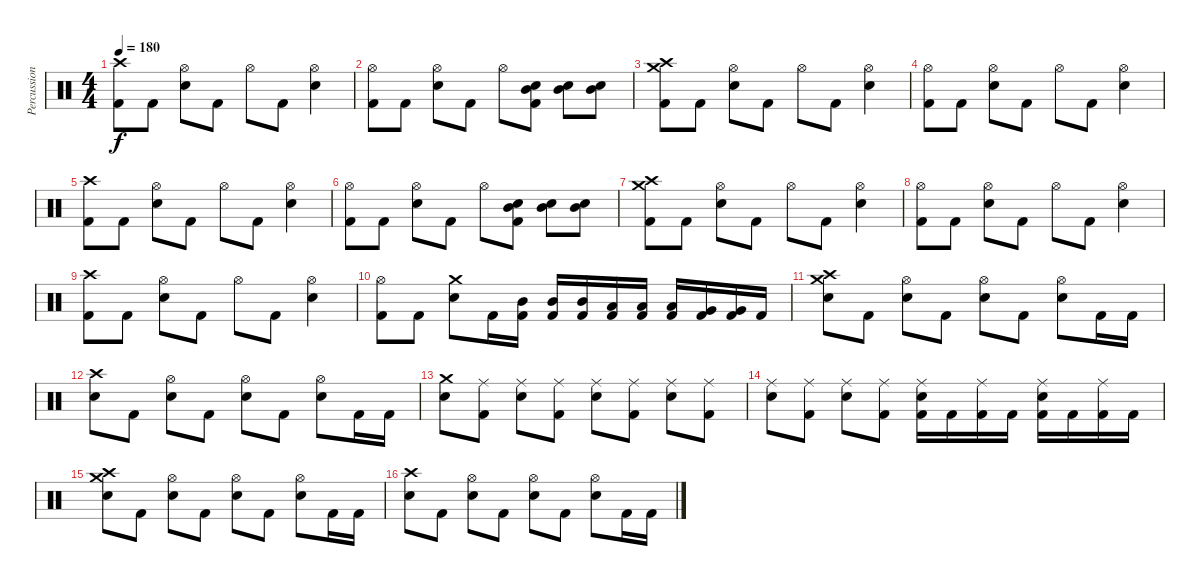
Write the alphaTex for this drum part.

\track ("Percussion" "Percussion") {instrument percussion}
\staff {score}
\articulation defaults
\ts (4 4)
\tempo 180
\clef neutral
\ks c
("Crash high (hit)" "Kick (hit) 2").8{dy f} "Kick (hit) 2".8 ("Hi-Hat (open)" "Electric Snare (hit)").8 "Kick (hit) 2".8 "Hi-Hat (open)".8 "Kick (hit) 2".8 ("Hi-Hat (open)" "Electric Snare (hit)").4 |
("Hi-Hat (open)" "Kick (hit) 2").8 "Kick (hit) 2".8 ("Hi-Hat (open)" "Electric Snare (hit)").8 "Kick (hit) 2".8 "Hi-Hat (open)".8 ("Electric Snare (hit)" "Mid Tom (hit)" "Kick (hit) 2").8 ("Electric Snare (hit)" "Mid Tom (hit)").8 ("Electric Snare (hit)" "Mid Tom (hit)").8 |
("Crash medium (hit)" "Crash high (hit)" "Kick (hit) 2").8 "Kick (hit) 2".8 ("Hi-Hat (open)" "Electric Snare (hit)").8 "Kick (hit) 2".8 "Hi-Hat (open)".8 "Kick (hit) 2".8 ("Hi-Hat (open)" "Electric Snare (hit)").4 |
("Hi-Hat (open)" "Kick (hit) 2").8 "Kick (hit) 2".8 ("Hi-Hat (open)" "Electric Snare (hit)").8 "Kick (hit) 2".8 "Hi-Hat (open)".8 "Kick (hit) 2".8 ("Hi-Hat (open)" "Electric Snare (hit)").4 |
("Crash high (hit)" "Kick (hit) 2").8 "Kick (hit) 2".8 ("Hi-Hat (open)" "Electric Snare (hit)").8 "Kick (hit) 2".8 "Hi-Hat (open)".8 "Kick (hit) 2".8 ("Hi-Hat (open)" "Electric Snare (hit)").4 |
("Hi-Hat (open)" "Kick (hit) 2").8 "Kick (hit) 2".8 ("Hi-Hat (open)" "Electric Snare (hit)").8 "Kick (hit) 2".8 "Hi-Hat (open)".8 ("Electric Snare (hit)" "Mid Tom (hit)" "Kick (hit) 2").8 ("Electric Snare (hit)" "Mid Tom (hit)").8 ("Electric Snare (hit)" "Mid Tom (hit)").8 |
("Crash medium (hit)" "Crash high (hit)" "Kick (hit) 2").8 "Kick (hit) 2".8 ("Hi-Hat (open)" "Electric Snare (hit)").8 "Kick (hit) 2".8 "Hi-Hat (open)".8 "Kick (hit) 2".8 ("Hi-Hat (open)" "Electric Snare (hit)").4 |
("Hi-Hat (open)" "Kick (hit) 2").8 "Kick (hit) 2".8 ("Hi-Hat (open)" "Electric Snare (hit)").8 "Kick (hit) 2".8 "Hi-Hat (open)".8 "Kick (hit) 2".8 ("Hi-Hat (open)" "Electric Snare (hit)").4 |
("Crash high (hit)" "Kick (hit) 2").8 "Kick (hit) 2".8 ("Hi-Hat (open)" "Electric Snare (hit)").8 "Kick (hit) 2".8 "Hi-Hat (open)".8 "Kick (hit) 2".8 ("Hi-Hat (open)" "Electric Snare (hit)").4 |
("Hi-Hat (open)" "Kick (hit) 2").8 "Kick (hit) 2".8 ("Crash medium (hit)" "Electric Snare (hit)").8 "Kick (hit) 2".16 ("Mid Tom (hit)" "Kick (hit) 2").16 ("Mid Tom (hit)" "Kick (hit) 2").16 ("Mid Tom (hit)" "Kick (hit) 2").16 ("Low Tom (hit)" "Kick (hit) 2").16 ("Low Tom (hit)" "Kick (hit) 2").16 ("Low Tom (hit)" "Kick (hit) 2").16 ("Very Low Tom (hit)" "Kick (hit) 2").16 ("Very Low Tom (hit)" "Kick (hit) 2").16 "Kick (hit) 2".16 |
("Crash medium (hit)" "Crash high (hit)" "Electric Snare (hit)").8 "Kick (hit) 2".8 ("Hi-Hat (open)" "Electric Snare (hit)").8 "Kick (hit) 2".8 ("Hi-Hat (open)" "Electric Snare (hit)").8 "Kick (hit) 2".8 ("Hi-Hat (open)" "Electric Snare (hit)").8 "Kick (hit) 2".16 "Kick (hit) 2".16 |
("Crash high (hit)" "Electric Snare (hit)").8 "Kick (hit) 2".8 ("Hi-Hat (open)" "Electric Snare (hit)").8 "Kick (hit) 2".8 ("Hi-Hat (open)" "Electric Snare (hit)").8 "Kick (hit) 2".8 ("Hi-Hat (open)" "Electric Snare (hit)").8 "Kick (hit) 2".16 "Kick (hit) 2".16 |
("Crash medium (hit)" "Electric Snare (hit)").8 ("Ride (middle)" "Kick (hit) 2").8 ("Ride (middle)" "Electric Snare (hit)").8 ("Ride (middle)" "Kick (hit) 2").8 ("Ride (middle)" "Electric Snare (hit)").8 ("Ride (middle)" "Kick (hit) 2").8 ("Ride (middle)" "Electric Snare (hit)").8 ("Ride (middle)" "Kick (hit) 2").8 |
("Ride (middle)" "Electric Snare (hit)").8 ("Ride (middle)" "Kick (hit) 2").8 ("Ride (middle)" "Electric Snare (hit)").8 ("Ride (middle)" "Kick (hit) 2").8 ("Ride (middle)" "Electric Snare (hit)" "Kick (hit) 2").16 "Kick (hit) 2".16 ("Ride (middle)" "Kick (hit) 2").16 "Kick (hit) 2".16 ("Ride (middle)" "Electric Snare (hit)" "Kick (hit) 2").16 "Kick (hit) 2".16 ("Ride (middle)" "Kick (hit) 2").16 "Kick (hit) 2".16 |
("Crash medium (hit)" "Crash high (hit)" "Electric Snare (hit)").8 "Kick (hit) 2".8 ("Hi-Hat (open)" "Electric Snare (hit)").8 "Kick (hit) 2".8 ("Hi-Hat (open)" "Electric Snare (hit)").8 "Kick (hit) 2".8 ("Hi-Hat (open)" "Electric Snare (hit)").8 "Kick (hit) 2".16 "Kick (hit) 2".16 |
("Crash high (hit)" "Electric Snare (hit)").8 "Kick (hit) 2".8 ("Hi-Hat (open)" "Electric Snare (hit)").8 "Kick (hit) 2".8 ("Hi-Hat (open)" "Electric Snare (hit)").8 "Kick (hit) 2".8 ("Hi-Hat (open)" "Electric Snare (hit)").8 "Kick (hit) 2".16 "Kick (hit) 2".16
